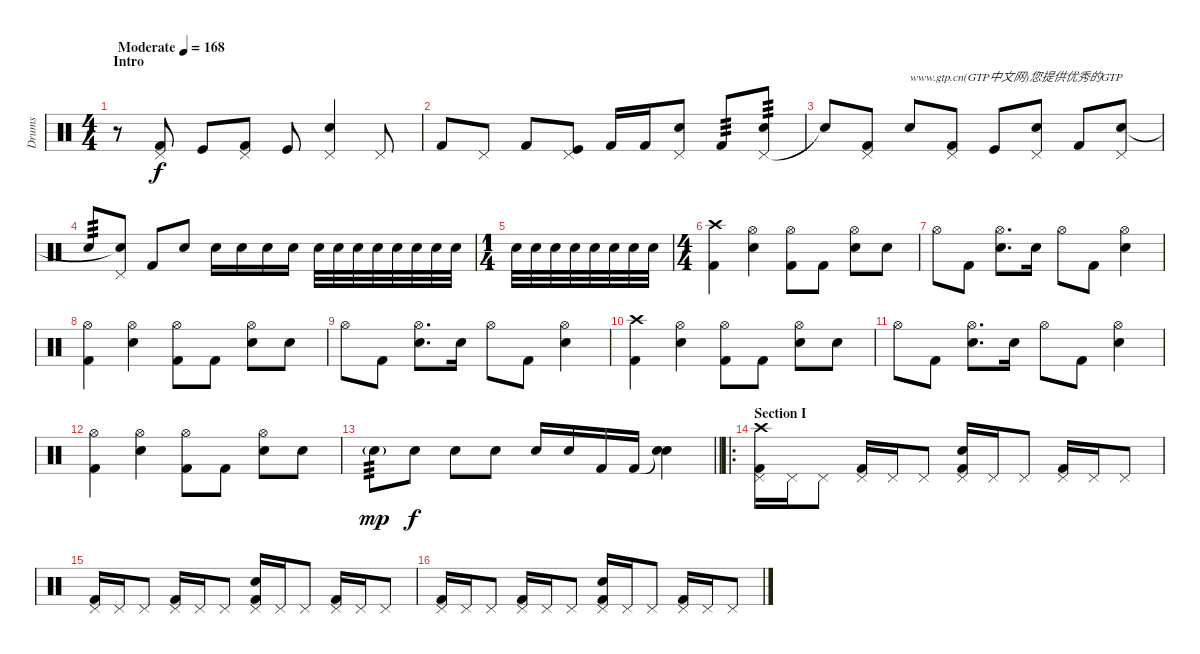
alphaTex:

\track ("Drums" "Drums") {instrument percussion}
\staff {score}
\articulation defaults
\ts (4 4)
\section ("" "Intro")
\tempo (168 "Moderate")
\clef neutral
\ks c
r.8{dy f} ("Pedal Hi-Hat (hit)" "Kick (hit) 2").8 "Kick (hit)".8 ("Pedal Hi-Hat (hit)" "Kick (hit) 2").8 "Kick (hit)".8 ("Pedal Hi-Hat (hit)" "Snare (hit) 2").4 "Pedal Hi-Hat (hit)".8 |
"Kick (hit) 2".8 "Pedal Hi-Hat (hit)".8 "Kick (hit) 2".8 ("Pedal Hi-Hat (hit)" "Kick (hit)").8 "Kick (hit) 2".16 "Kick (hit) 2".16 ("Pedal Hi-Hat (hit)" "Snare (hit) 2").8 "Kick (hit) 2".8{tp 3} ("Pedal Hi-Hat (hit)" "Snare (hit) 2").8{tp 3} |
"Snare (hit)"{t}.8 ("Pedal Hi-Hat (hit)" "Kick (hit) 2").8 "Snare (hit) 2".8{txt "www.gtp.cn(GTP中文网)您提供优秀的GTP"} ("Pedal Hi-Hat (hit)" "Kick (hit) 2").8 "Kick (hit)".8 ("Pedal Hi-Hat (hit)" "Snare (hit) 2").8 "Kick (hit) 2".8 ("Pedal Hi-Hat (hit)" "Snare (hit) 2").8 |
"Snare (hit) 2".8{tp 3} ("Pedal Hi-Hat (hit)" "Snare (hit)"{t}).8 "Kick (hit) 2".8 "Snare (hit) 2".8 "Snare (hit) 2".16 "Snare (hit) 2".16 "Snare (hit) 2".16 "Snare (hit) 2".16 "Snare (hit) 2".32 "Snare (hit) 2".32 "Snare (hit) 2".32 "Snare (hit) 2".32 "Snare (hit) 2".32 "Snare (hit) 2".32 "Snare (hit) 2".32 "Snare (hit) 2".32 |
\ts (1 4)
"Snare (hit) 2".32 "Snare (hit) 2".32 "Snare (hit) 2".32 "Snare (hit) 2".32 "Snare (hit) 2".32 "Snare (hit) 2".32 "Snare (hit) 2".32 "Snare (hit) 2".32 |
\ts (4 4)
("Crash high (hit)" "Kick (hit) 2").4 ("Hi-Hat (open)" "Snare (hit) 2").4 ("Hi-Hat (open)" "Kick (hit) 2").8 "Kick (hit) 2".8 ("Hi-Hat (open)" "Snare (hit) 2").8 "Snare (hit) 2".8 |
"Hi-Hat (open)".8 "Kick (hit) 2".8 ("Hi-Hat (open)" "Snare (hit) 2").8{d} "Snare (hit) 2".16 "Hi-Hat (open)".8 "Kick (hit) 2".8 ("Hi-Hat (open)" "Snare (hit) 2").4 |
("Hi-Hat (open)" "Kick (hit) 2").4 ("Hi-Hat (open)" "Snare (hit) 2").4 ("Hi-Hat (open)" "Kick (hit) 2").8 "Kick (hit) 2".8 ("Hi-Hat (open)" "Snare (hit) 2").8 "Snare (hit) 2".8 |
"Hi-Hat (open)".8 "Kick (hit) 2".8 ("Hi-Hat (open)" "Snare (hit) 2").8{d} "Snare (hit) 2".16 "Hi-Hat (open)".8 "Kick (hit) 2".8 ("Hi-Hat (open)" "Snare (hit) 2").4 |
("Crash high (hit)" "Kick (hit) 2").4 ("Hi-Hat (open)" "Snare (hit) 2").4 ("Hi-Hat (open)" "Kick (hit) 2").8 "Kick (hit) 2".8 ("Hi-Hat (open)" "Snare (hit) 2").8 "Snare (hit) 2".8 |
"Hi-Hat (open)".8 "Kick (hit) 2".8 ("Hi-Hat (open)" "Snare (hit) 2").8{d} "Snare (hit) 2".16 "Hi-Hat (open)".8 "Kick (hit) 2".8 ("Hi-Hat (open)" "Snare (hit) 2").4 |
("Hi-Hat (open)" "Kick (hit) 2").4 ("Hi-Hat (open)" "Snare (hit) 2").4 ("Hi-Hat (open)" "Kick (hit) 2").8 "Kick (hit) 2".8 ("Hi-Hat (open)" "Snare (hit) 2").8 "Snare (hit) 2".8 |
\barLineRight lightlight "Electric Snare (hit)"{g}.8{tp 3 dy mp} "Snare (hit) 2".8{dy f} "Snare (hit) 2".8 "Snare (hit) 2".8 "Snare (hit) 2".16 "Snare (hit) 2".16 "Kick (hit) 2".16 "Kick (hit) 2".16
("Snare (hit)"{t} "Snare (hit) 2").4 |
\ro
\section ("" "Section I")
("Crash high (hit)" "Pedal Hi-Hat (hit)" "Kick (hit) 2").16 "Pedal Hi-Hat (hit)".16 "Pedal Hi-Hat (hit)".8 ("Pedal Hi-Hat (hit)" "Kick (hit) 2").16 "Pedal Hi-Hat (hit)".16 "Pedal Hi-Hat (hit)".8 ("Pedal Hi-Hat (hit)" "Snare (hit) 2" "Kick (hit) 2").16 "Pedal Hi-Hat (hit)".16 "Pedal Hi-Hat (hit)".8 ("Pedal Hi-Hat (hit)" "Kick (hit) 2").16 "Pedal Hi-Hat (hit)".16 "Pedal Hi-Hat (hit)".8 |
("Pedal Hi-Hat (hit)" "Kick (hit) 2").16 "Pedal Hi-Hat (hit)".16 "Pedal Hi-Hat (hit)".8 ("Pedal Hi-Hat (hit)" "Kick (hit) 2").16 "Pedal Hi-Hat (hit)".16 "Pedal Hi-Hat (hit)".8 ("Pedal Hi-Hat (hit)" "Snare (hit) 2" "Kick (hit) 2").16 "Pedal Hi-Hat (hit)".16 "Pedal Hi-Hat (hit)".8 ("Pedal Hi-Hat (hit)" "Kick (hit) 2").16 "Pedal Hi-Hat (hit)".16 "Pedal Hi-Hat (hit)".8 |
("Pedal Hi-Hat (hit)" "Kick (hit) 2").16 "Pedal Hi-Hat (hit)".16 "Pedal Hi-Hat (hit)".8 ("Pedal Hi-Hat (hit)" "Kick (hit) 2").16 "Pedal Hi-Hat (hit)".16 "Pedal Hi-Hat (hit)".8 ("Pedal Hi-Hat (hit)" "Snare (hit) 2" "Kick (hit) 2").16 "Pedal Hi-Hat (hit)".16 "Pedal Hi-Hat (hit)".8 ("Pedal Hi-Hat (hit)" "Kick (hit) 2").16 "Pedal Hi-Hat (hit)".16 "Pedal Hi-Hat (hit)".8
